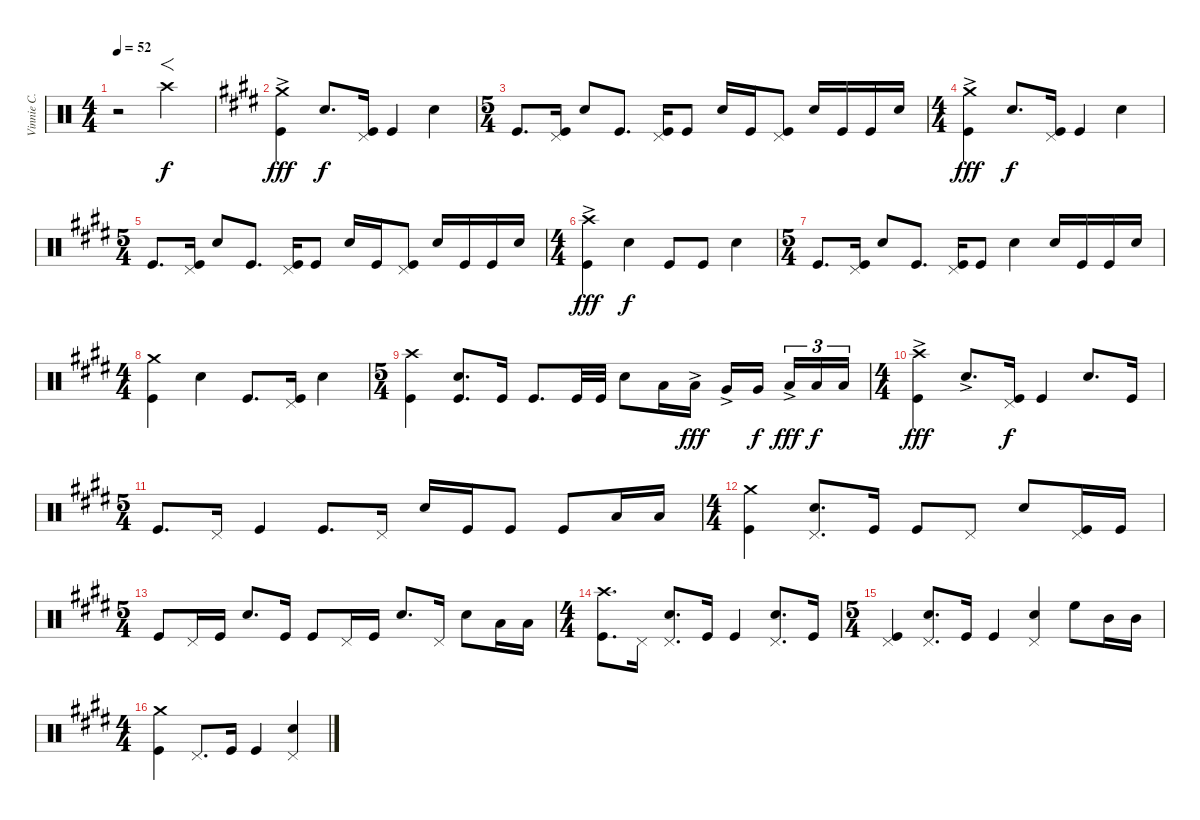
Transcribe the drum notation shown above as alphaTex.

\track ("Vinnie C." "Vinnie C.") {instrument percussion}
\staff {score}
\articulation defaults
\ts (4 4)
\tempo 52
\clef neutral
\ks c
r.2{dy f} "Crash high (hit)"{tr (49 64)}.2{f} |
\ks e
("Crash medium (hit)"{ac} "Kick (hit)"{ac}).4{dy fff} "Electric Snare (hit)".8{d dy f} ("Pedal Hi-Hat (hit)" "Kick (hit)").16 "Kick (hit)".4 "Electric Snare (hit)".4 |
\ts (5 4)
"Kick (hit)".8{d} ("Pedal Hi-Hat (hit)" "Kick (hit)").16 "Electric Snare (hit)".8 "Kick (hit)".8{d} ("Pedal Hi-Hat (hit)" "Kick (hit)").16 "Kick (hit)".8 "Electric Snare (hit)".16 "Kick (hit)".16 ("Pedal Hi-Hat (hit)" "Kick (hit)").8 "Electric Snare (hit)".16 "Kick (hit)".16 "Kick (hit)".16 "Electric Snare (hit)".16 |
\ts (4 4)
("Crash medium (hit)"{ac} "Kick (hit)"{ac}).4{dy fff} "Electric Snare (hit)".8{d dy f} ("Pedal Hi-Hat (hit)" "Kick (hit)").16 "Kick (hit)".4 "Electric Snare (hit)".4 |
\ts (5 4)
"Kick (hit)".8{d} ("Pedal Hi-Hat (hit)" "Kick (hit)").16 "Electric Snare (hit)".8 "Kick (hit)".8{d} ("Pedal Hi-Hat (hit)" "Kick (hit)").16 "Kick (hit)".8 "Electric Snare (hit)".16 "Kick (hit)".16 ("Pedal Hi-Hat (hit)" "Kick (hit)").8 "Electric Snare (hit)".16 "Kick (hit)".16 "Kick (hit)".16 "Electric Snare (hit)".16 |
\ts (4 4)
("Crash high (hit)"{ac} "Kick (hit)"{ac}).4{dy fff} "Electric Snare (hit)".4{dy f} "Kick (hit)".8 "Kick (hit)".8 "Electric Snare (hit)".4 |
\ts (5 4)
"Kick (hit)".8{d} ("Pedal Hi-Hat (hit)" "Kick (hit)").16 "Electric Snare (hit)".8 "Kick (hit)".8{d} ("Pedal Hi-Hat (hit)" "Kick (hit)").16 "Kick (hit)".8 "Electric Snare (hit)".4 "Electric Snare (hit)".16 "Kick (hit)".16 "Kick (hit)".16 "Electric Snare (hit)".16 |
\ts (4 4)
("Crash medium (hit)" "Kick (hit)").4 "Electric Snare (hit)".4 "Kick (hit)".8{d} ("Pedal Hi-Hat (hit)" "Kick (hit)").16 "Electric Snare (hit)".4 |
\ts (5 4)
("Crash high (hit)" "Kick (hit)").4 ("Electric Snare (hit)" "Kick (hit)").8{d} "Kick (hit)".16 "Kick (hit)".8{d} "Kick (hit)".32 "Kick (hit)".32 "Electric Snare (hit)".8 "Low Tom (hit)".16 "Low Tom (hit)"{ac}.16{dy fff} "Very Low Tom (hit)"{ac}.16 "Very Low Tom (hit)".16{dy f} "Low Floor Tom (hit)"{ac}.16{tu (3 2) dy fff} "Low Floor Tom (hit)".16{tu (3 2) dy f} "Low Floor Tom (hit)".16{tu (3 2)} |
\ts (4 4)
("Crash high (hit)" "Kick (hit)"{ac}).4{dy fff} "Electric Snare (hit)"{ac}.8{d} ("Pedal Hi-Hat (hit)" "Kick (hit)").16{dy f} "Kick (hit)".4 "Electric Snare (hit)".8{d} "Kick (hit)".16 |
\ts (5 4)
"Kick (hit)".8{d} "Pedal Hi-Hat (hit)".16 "Kick (hit)".4 "Kick (hit)".8{d} "Pedal Hi-Hat (hit)".16 "Electric Snare (hit)".16 "Kick (hit)".16 "Kick (hit)".8 "Kick (hit)".8 "Low Tom (hit)".16 "Low Tom (hit)".16 |
\ts (4 4)
("Crash medium (hit)" "Kick (hit)").4 ("Pedal Hi-Hat (hit)" "Electric Snare (hit)").8{d} "Kick (hit)".16 "Kick (hit)".8 "Pedal Hi-Hat (hit)".8 "Electric Snare (hit)".8 ("Pedal Hi-Hat (hit)" "Kick (hit)").16 "Kick (hit)".16 |
\ts (5 4)
"Kick (hit)".8 "Pedal Hi-Hat (hit)".16 "Kick (hit)".16 "Electric Snare (hit)".8{d} "Kick (hit)".16 "Kick (hit)".8 "Pedal Hi-Hat (hit)".16 "Kick (hit)".16 "Electric Snare (hit)".8{d} "Pedal Hi-Hat (hit)".16 "Electric Snare (hit)".8 "Low Tom (hit)".16 "Low Tom (hit)".16 |
\ts (4 4)
("Crash high (hit)" "Kick (hit)").8{d} "Pedal Hi-Hat (hit)".16 ("Pedal Hi-Hat (hit)" "Electric Snare (hit)").8{d} "Kick (hit)".16 "Kick (hit)".4 ("Pedal Hi-Hat (hit)" "Electric Snare (hit)").8{d} "Kick (hit)".16 |
\ts (5 4)
("Pedal Hi-Hat (hit)" "Kick (hit)").4 ("Pedal Hi-Hat (hit)" "Electric Snare (hit)").8{d} "Kick (hit)".16 "Kick (hit)".4 ("Pedal Hi-Hat (hit)" "Electric Snare (hit)").4 "High Floor Tom (hit)".8 "Mid Tom (hit)".16 "Mid Tom (hit)".16 |
\ts (4 4)
("Crash medium (hit)" "Kick (hit)").4 "Pedal Hi-Hat (hit)".8{d} "Kick (hit)".16 "Kick (hit)".4 ("Pedal Hi-Hat (hit)" "Electric Snare (hit)").4
